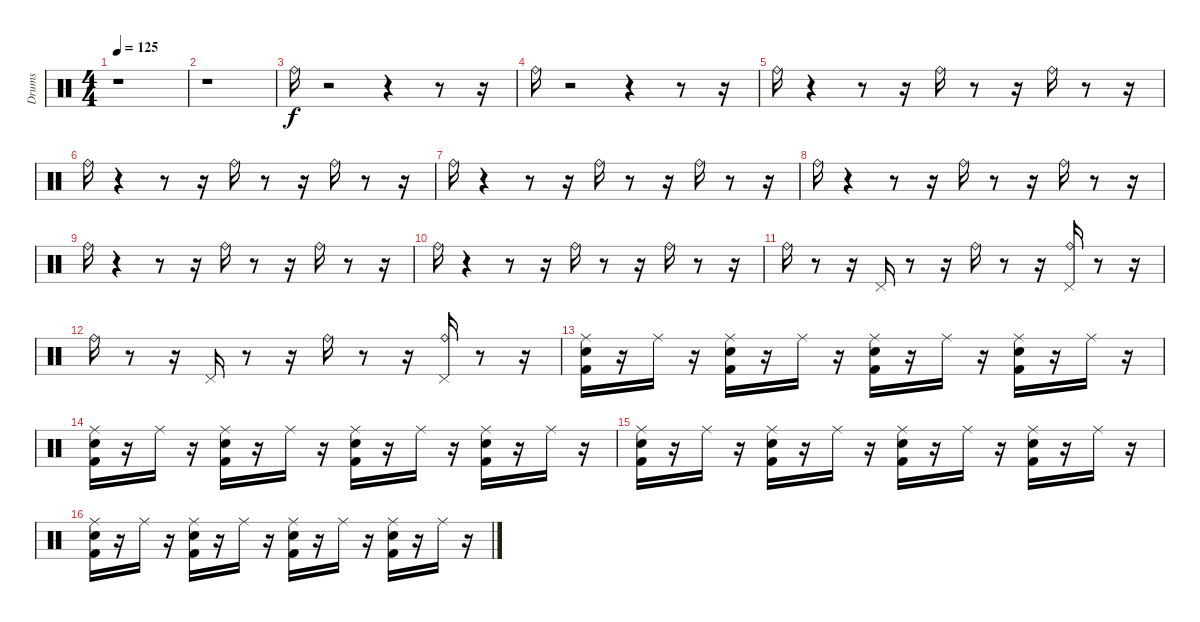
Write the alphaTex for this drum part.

\track ("Drums" "Drums") {instrument percussion}
\staff {score}
\articulation defaults
\ts (4 4)
\tempo 125
\clef neutral
\ks c
r.1{dy f} |
r.1 |
"Ride (bell)".16 r.2 r.4 r.8 r.16 |
"Ride (bell)".16 r.2 r.4 r.8 r.16 |
"Ride (bell)".16 r.4 r.8 r.16 "Ride (bell)".16 r.8 r.16 "Ride (bell)".16 r.8 r.16 |
"Ride (bell)".16 r.4 r.8 r.16 "Ride (bell)".16 r.8 r.16 "Ride (bell)".16 r.8 r.16 |
"Ride (bell)".16 r.4 r.8 r.16 "Ride (bell)".16 r.8 r.16 "Ride (bell)".16 r.8 r.16 |
"Ride (bell)".16 r.4 r.8 r.16 "Ride (bell)".16 r.8 r.16 "Ride (bell)".16 r.8 r.16 |
"Ride (bell)".16 r.4 r.8 r.16 "Ride (bell)".16 r.8 r.16 "Ride (bell)".16 r.8 r.16 |
"Ride (bell)".16 r.4 r.8 r.16 "Ride (bell)".16 r.8 r.16 "Ride (bell)".16 r.8 r.16 |
"Ride (bell)".16 r.8 r.16 "Pedal Hi-Hat (hit)".16 r.8 r.16 "Ride (bell)".16 r.8 r.16 ("Ride (bell)" "Pedal Hi-Hat (hit)").16 r.8 r.16 |
"Ride (bell)".16 r.8 r.16 "Pedal Hi-Hat (hit)".16 r.8 r.16 "Ride (bell)".16 r.8 r.16 ("Ride (bell)" "Pedal Hi-Hat (hit)").16 r.8 r.16 |
("Ride (middle)" "Snare (hit) 2" "Kick (hit) 2").16 r.16 "Ride (middle)".16 r.16 ("Ride (middle)" "Snare (hit) 2" "Kick (hit) 2").16 r.16 "Ride (middle)".16 r.16 ("Ride (middle)" "Snare (hit) 2" "Kick (hit) 2").16 r.16 "Ride (middle)".16 r.16 ("Ride (middle)" "Snare (hit) 2" "Kick (hit) 2").16 r.16 "Ride (middle)".16 r.16 |
("Ride (middle)" "Snare (hit) 2" "Kick (hit) 2").16 r.16 "Ride (middle)".16 r.16 ("Ride (middle)" "Snare (hit) 2" "Kick (hit) 2").16 r.16 "Ride (middle)".16 r.16 ("Ride (middle)" "Snare (hit) 2" "Kick (hit) 2").16 r.16 "Ride (middle)".16 r.16 ("Ride (middle)" "Snare (hit) 2" "Kick (hit) 2").16 r.16 "Ride (middle)".16 r.16 |
("Ride (middle)" "Snare (hit) 2" "Kick (hit) 2").16 r.16 "Ride (middle)".16 r.16 ("Ride (middle)" "Snare (hit) 2" "Kick (hit) 2").16 r.16 "Ride (middle)".16 r.16 ("Ride (middle)" "Snare (hit) 2" "Kick (hit) 2").16 r.16 "Ride (middle)".16 r.16 ("Ride (middle)" "Snare (hit) 2" "Kick (hit) 2").16 r.16 "Ride (middle)".16 r.16 |
("Ride (middle)" "Snare (hit) 2" "Kick (hit) 2").16 r.16 "Ride (middle)".16 r.16 ("Ride (middle)" "Snare (hit) 2" "Kick (hit) 2").16 r.16 "Ride (middle)".16 r.16 ("Ride (middle)" "Snare (hit) 2" "Kick (hit) 2").16 r.16 "Ride (middle)".16 r.16 ("Ride (middle)" "Snare (hit) 2" "Kick (hit) 2").16 r.16 "Ride (middle)".16 r.16
